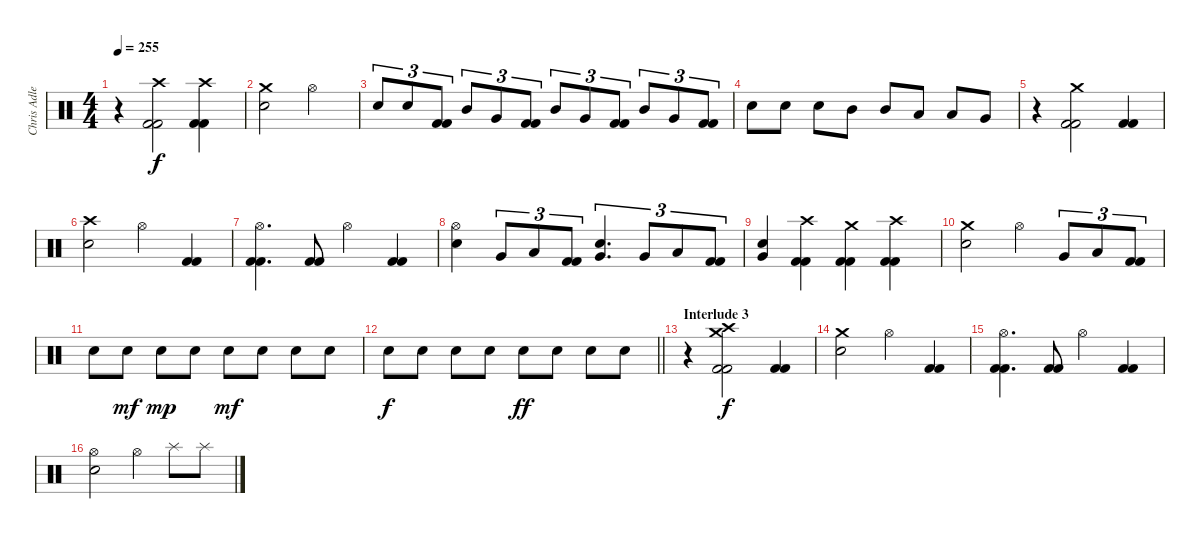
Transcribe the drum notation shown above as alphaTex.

\track ("Chris Adler" "Chris Adle") {instrument percussion}
\staff {score}
\articulation defaults
\ts (4 4)
\tempo 255
\clef neutral
\ks c
r.4{dy f} ("Crash high (hit)" "Kick (hit) 2" "Kick (hit) 2").2 ("Crash high (hit)" "Kick (hit) 2" "Kick (hit) 2").4 |
("Crash medium (hit)" "Electric Snare (hit)").2 "Hi-Hat (open)".2 |
"Electric Snare (hit)".8{tu (3 2)} "Electric Snare (hit)".8{tu (3 2)} ("Kick (hit) 2" "Kick (hit) 2").8{tu (3 2)} "Mid Tom (hit)".8{tu (3 2)} "Very Low Tom (hit)".8{tu (3 2)} ("Kick (hit) 2" "Kick (hit) 2").8{tu (3 2)} "Mid Tom (hit)".8{tu (3 2)} "Very Low Tom (hit)".8{tu (3 2)} ("Kick (hit) 2" "Kick (hit) 2").8{tu (3 2)} "Mid Tom (hit)".8{tu (3 2)} "Very Low Tom (hit)".8{tu (3 2)} ("Kick (hit) 2" "Kick (hit) 2").8{tu (3 2)} |
"Electric Snare (hit)".8 "Electric Snare (hit)".8 "Electric Snare (hit)".8 "Mid Tom (hit)".8 "Mid Tom (hit)".8 "Low Tom (hit)".8 "Low Tom (hit)".8 "Very Low Tom (hit)".8 |
r.4 ("Crash medium (hit)" "Kick (hit) 2" "Kick (hit) 2").2 ("Kick (hit) 2" "Kick (hit) 2").4 |
("Crash high (hit)" "Electric Snare (hit)").2 "Hi-Hat (open)".4 ("Kick (hit) 2" "Kick (hit) 2").4 |
("Hi-Hat (open)" "Kick (hit) 2" "Kick (hit) 2").4{d} ("Kick (hit) 2" "Kick (hit) 2").8 "Hi-Hat (open)".4 ("Kick (hit) 2" "Kick (hit) 2").4 |
("Hi-Hat (open)" "Electric Snare (hit)").4 "Very Low Tom (hit)".8{tu (3 2)} "Low Floor Tom (hit)".8{tu (3 2)} ("Kick (hit) 2" "Kick (hit) 2").8{tu (3 2)} ("Electric Snare (hit)" "Very Low Tom (hit)").4{d tu (3 2)} "Very Low Tom (hit)".8{tu (3 2)} "Low Floor Tom (hit)".8{tu (3 2)} ("Kick (hit) 2" "Kick (hit) 2").8{tu (3 2)} |
("Electric Snare (hit)" "Very Low Tom (hit)").4 ("Crash high (hit)" "Kick (hit) 2" "Kick (hit) 2").4 ("Crash medium (hit)" "Kick (hit) 2" "Kick (hit) 2").4 ("Crash high (hit)" "Kick (hit) 2" "Kick (hit) 2").4 |
("Crash medium (hit)" "Electric Snare (hit)").2 "Hi-Hat (open)".4 "Very Low Tom (hit)".8{tu (3 2)} "Low Floor Tom (hit)".8{tu (3 2)} ("Kick (hit) 2" "Kick (hit) 2").8{tu (3 2)} |
"Electric Snare (hit)".8 "Electric Snare (hit)".8{dy mf} "Electric Snare (hit)".8{dy mp} "Electric Snare (hit)".8 "Electric Snare (hit)".8{dy mf} "Electric Snare (hit)".8 "Electric Snare (hit)".8 "Electric Snare (hit)".8 |
\barLineRight lightlight "Electric Snare (hit)".8{dy f} "Electric Snare (hit)".8 "Electric Snare (hit)".8 "Electric Snare (hit)".8 "Electric Snare (hit)".8{dy ff} "Electric Snare (hit)".8 "Electric Snare (hit)".8 "Electric Snare (hit)".8
|
\section ("" "Interlude 3")
r.4 ("Crash medium (hit)" "Crash high (hit)" "Kick (hit) 2" "Kick (hit) 2").2{dy f} ("Kick (hit) 2" "Kick (hit) 2").4 |
("Crash medium (hit)" "Electric Snare (hit)").2 "Hi-Hat (open)".4 ("Kick (hit) 2" "Kick (hit) 2").4 |
("Hi-Hat (open)" "Kick (hit) 2" "Kick (hit) 2").4{d} ("Kick (hit) 2" "Kick (hit) 2").8 "Hi-Hat (open)".4 ("Kick (hit) 2" "Kick (hit) 2").4 |
("Hi-Hat (open)" "Electric Snare (hit)").2 "Hi-Hat (open)".4 "Splash (hit)".8 "Splash (hit)".8
